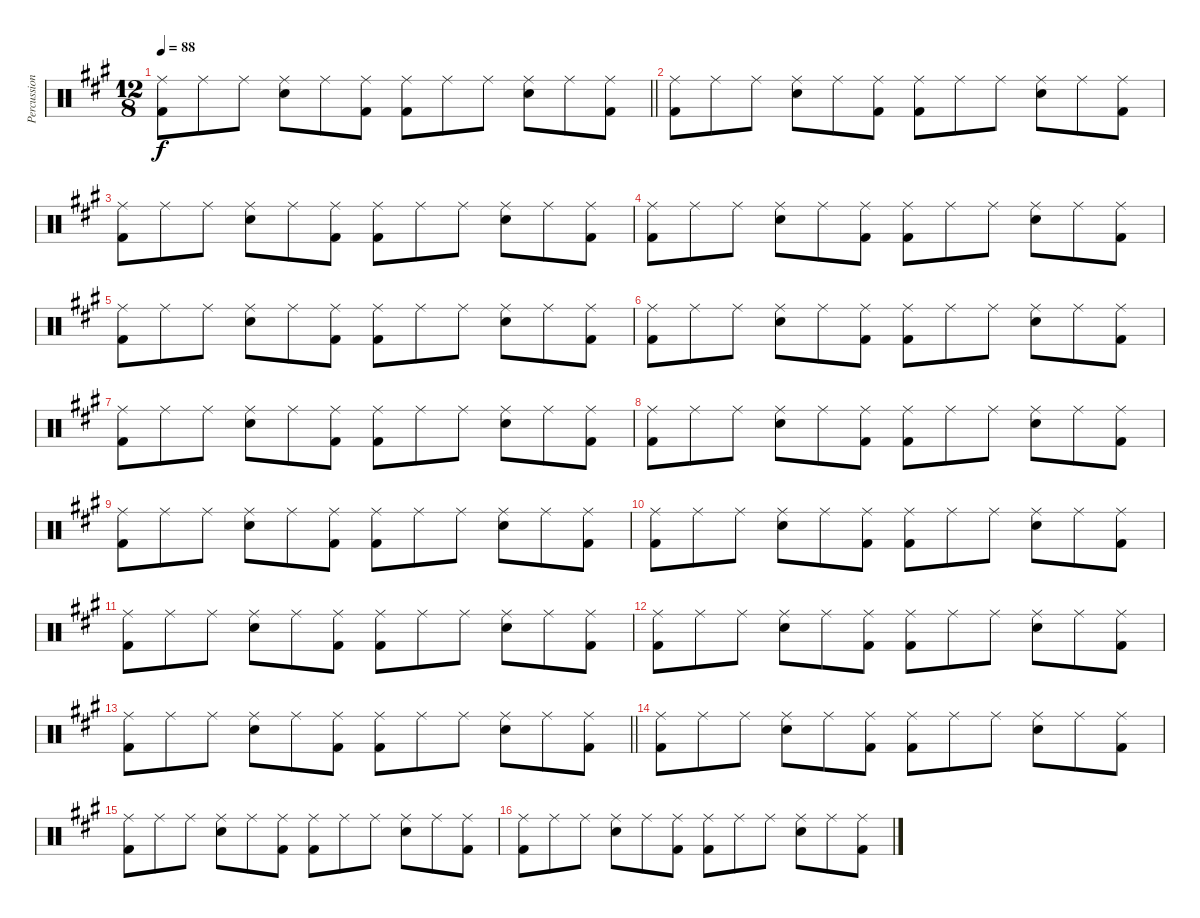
\track ("Percussion" "Percussion") {instrument percussion}
\staff {score}
\articulation defaults
\ts (12 8)
\tempo 88
\clef neutral
\barLineRight lightlight
\ks a
("Ride (middle)" "Kick (hit) 2").8{dy f} "Ride (middle)".8 "Ride (middle)".8 ("Ride (middle)" "Snare (hit) 2").8 "Ride (middle)".8 ("Ride (middle)" "Kick (hit) 2").8 ("Ride (middle)" "Kick (hit) 2").8 "Ride (middle)".8 "Ride (middle)".8 ("Ride (middle)" "Snare (hit) 2").8 "Ride (middle)".8 ("Ride (middle)" "Kick (hit) 2").8 |
("Ride (middle)" "Kick (hit) 2").8 "Ride (middle)".8 "Ride (middle)".8 ("Ride (middle)" "Snare (hit) 2").8 "Ride (middle)".8 ("Ride (middle)" "Kick (hit) 2").8 ("Ride (middle)" "Kick (hit) 2").8 "Ride (middle)".8 "Ride (middle)".8 ("Ride (middle)" "Snare (hit) 2").8 "Ride (middle)".8 ("Ride (middle)" "Kick (hit) 2").8 |
("Ride (middle)" "Kick (hit) 2").8 "Ride (middle)".8 "Ride (middle)".8 ("Ride (middle)" "Snare (hit) 2").8 "Ride (middle)".8 ("Ride (middle)" "Kick (hit) 2").8 ("Ride (middle)" "Kick (hit) 2").8 "Ride (middle)".8 "Ride (middle)".8 ("Ride (middle)" "Snare (hit) 2").8 "Ride (middle)".8 ("Ride (middle)" "Kick (hit) 2").8 |
("Ride (middle)" "Kick (hit) 2").8 "Ride (middle)".8 "Ride (middle)".8 ("Ride (middle)" "Snare (hit) 2").8 "Ride (middle)".8 ("Ride (middle)" "Kick (hit) 2").8 ("Ride (middle)" "Kick (hit) 2").8 "Ride (middle)".8 "Ride (middle)".8 ("Ride (middle)" "Snare (hit) 2").8 "Ride (middle)".8 ("Ride (middle)" "Kick (hit) 2").8 |
("Ride (middle)" "Kick (hit) 2").8 "Ride (middle)".8 "Ride (middle)".8 ("Ride (middle)" "Snare (hit) 2").8 "Ride (middle)".8 ("Ride (middle)" "Kick (hit) 2").8 ("Ride (middle)" "Kick (hit) 2").8 "Ride (middle)".8 "Ride (middle)".8 ("Ride (middle)" "Snare (hit) 2").8 "Ride (middle)".8 ("Ride (middle)" "Kick (hit) 2").8 |
("Ride (middle)" "Kick (hit) 2").8 "Ride (middle)".8 "Ride (middle)".8 ("Ride (middle)" "Snare (hit) 2").8 "Ride (middle)".8 ("Ride (middle)" "Kick (hit) 2").8 ("Ride (middle)" "Kick (hit) 2").8 "Ride (middle)".8 "Ride (middle)".8 ("Ride (middle)" "Snare (hit) 2").8 "Ride (middle)".8 ("Ride (middle)" "Kick (hit) 2").8 |
("Ride (middle)" "Kick (hit) 2").8 "Ride (middle)".8 "Ride (middle)".8 ("Ride (middle)" "Snare (hit) 2").8 "Ride (middle)".8 ("Ride (middle)" "Kick (hit) 2").8 ("Ride (middle)" "Kick (hit) 2").8 "Ride (middle)".8 "Ride (middle)".8 ("Ride (middle)" "Snare (hit) 2").8 "Ride (middle)".8 ("Ride (middle)" "Kick (hit) 2").8 |
("Ride (middle)" "Kick (hit) 2").8 "Ride (middle)".8 "Ride (middle)".8 ("Ride (middle)" "Snare (hit) 2").8 "Ride (middle)".8 ("Ride (middle)" "Kick (hit) 2").8 ("Ride (middle)" "Kick (hit) 2").8 "Ride (middle)".8 "Ride (middle)".8 ("Ride (middle)" "Snare (hit) 2").8 "Ride (middle)".8 ("Ride (middle)" "Kick (hit) 2").8 |
("Ride (middle)" "Kick (hit) 2").8 "Ride (middle)".8 "Ride (middle)".8 ("Ride (middle)" "Snare (hit) 2").8 "Ride (middle)".8 ("Ride (middle)" "Kick (hit) 2").8 ("Ride (middle)" "Kick (hit) 2").8 "Ride (middle)".8 "Ride (middle)".8 ("Ride (middle)" "Snare (hit) 2").8 "Ride (middle)".8 ("Ride (middle)" "Kick (hit) 2").8 |
("Ride (middle)" "Kick (hit) 2").8 "Ride (middle)".8 "Ride (middle)".8 ("Ride (middle)" "Snare (hit) 2").8 "Ride (middle)".8 ("Ride (middle)" "Kick (hit) 2").8 ("Ride (middle)" "Kick (hit) 2").8 "Ride (middle)".8 "Ride (middle)".8 ("Ride (middle)" "Snare (hit) 2").8 "Ride (middle)".8 ("Ride (middle)" "Kick (hit) 2").8 |
("Ride (middle)" "Kick (hit) 2").8 "Ride (middle)".8 "Ride (middle)".8 ("Ride (middle)" "Snare (hit) 2").8 "Ride (middle)".8 ("Ride (middle)" "Kick (hit) 2").8 ("Ride (middle)" "Kick (hit) 2").8 "Ride (middle)".8 "Ride (middle)".8 ("Ride (middle)" "Snare (hit) 2").8 "Ride (middle)".8 ("Ride (middle)" "Kick (hit) 2").8 |
("Ride (middle)" "Kick (hit) 2").8 "Ride (middle)".8 "Ride (middle)".8 ("Ride (middle)" "Snare (hit) 2").8 "Ride (middle)".8 ("Ride (middle)" "Kick (hit) 2").8 ("Ride (middle)" "Kick (hit) 2").8 "Ride (middle)".8 "Ride (middle)".8 ("Ride (middle)" "Snare (hit) 2").8 "Ride (middle)".8 ("Ride (middle)" "Kick (hit) 2").8 |
\barLineRight lightlight
("Ride (middle)" "Kick (hit) 2").8 "Ride (middle)".8 "Ride (middle)".8 ("Ride (middle)" "Snare (hit) 2").8 "Ride (middle)".8 ("Ride (middle)" "Kick (hit) 2").8 ("Ride (middle)" "Kick (hit) 2").8 "Ride (middle)".8 "Ride (middle)".8 ("Ride (middle)" "Snare (hit) 2").8 "Ride (middle)".8 ("Ride (middle)" "Kick (hit) 2").8 |
("Ride (middle)" "Kick (hit) 2").8 "Ride (middle)".8 "Ride (middle)".8 ("Ride (middle)" "Snare (hit) 2").8 "Ride (middle)".8 ("Ride (middle)" "Kick (hit) 2").8 ("Ride (middle)" "Kick (hit) 2").8 "Ride (middle)".8 "Ride (middle)".8 ("Ride (middle)" "Snare (hit) 2").8 "Ride (middle)".8 ("Ride (middle)" "Kick (hit) 2").8 |
("Ride (middle)" "Kick (hit) 2").8 "Ride (middle)".8 "Ride (middle)".8 ("Ride (middle)" "Snare (hit) 2").8 "Ride (middle)".8 ("Ride (middle)" "Kick (hit) 2").8 ("Ride (middle)" "Kick (hit) 2").8 "Ride (middle)".8 "Ride (middle)".8 ("Ride (middle)" "Snare (hit) 2").8 "Ride (middle)".8 ("Ride (middle)" "Kick (hit) 2").8 |
("Ride (middle)" "Kick (hit) 2").8 "Ride (middle)".8 "Ride (middle)".8 ("Ride (middle)" "Snare (hit) 2").8 "Ride (middle)".8 ("Ride (middle)" "Kick (hit) 2").8 ("Ride (middle)" "Kick (hit) 2").8 "Ride (middle)".8 "Ride (middle)".8 ("Ride (middle)" "Snare (hit) 2").8 "Ride (middle)".8 ("Ride (middle)" "Kick (hit) 2").8
